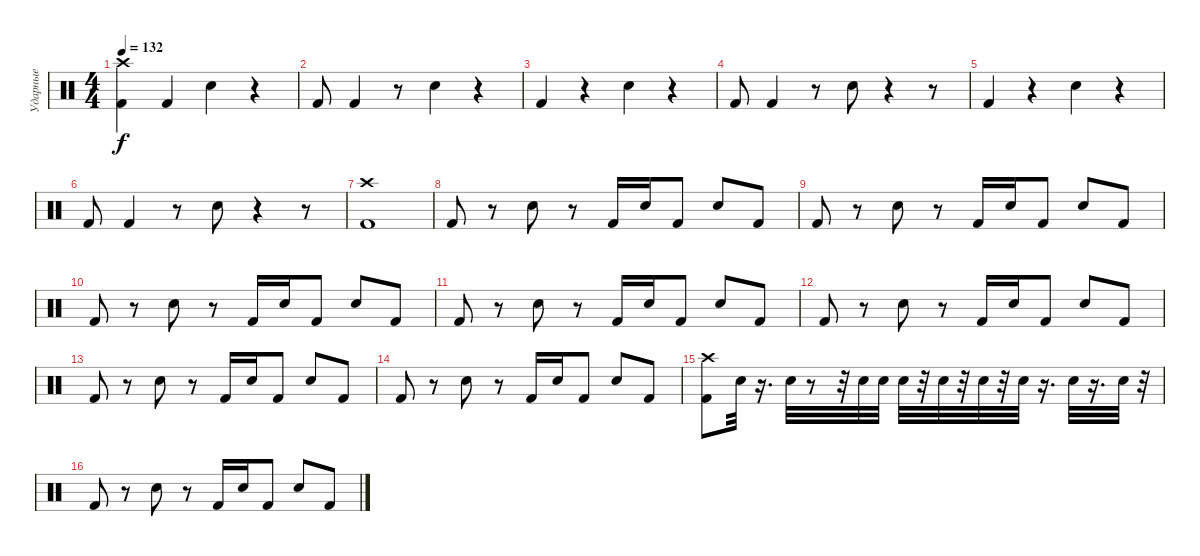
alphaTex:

\track ("Ударные" "Ударные") {instrument percussion}
\staff {score}
\articulation defaults
\ts (4 4)
\tempo 132
\clef neutral
\ks c
("Kick (hit) 2" "Crash high (hit)").4{dy f} "Kick (hit) 2".4 "Electric Snare (hit)".4 r.4 |
"Kick (hit) 2".8 "Kick (hit) 2".4 r.8 "Electric Snare (hit)".4 r.4 |
"Kick (hit) 2".4 r.4 "Electric Snare (hit)".4 r.4 |
"Kick (hit) 2".8 "Kick (hit) 2".4 r.8 "Electric Snare (hit)".8 r.4 r.8 |
"Kick (hit) 2".4 r.4 "Electric Snare (hit)".4 r.4 |
"Kick (hit) 2".8 "Kick (hit) 2".4 r.8 "Electric Snare (hit)".8 r.4 r.8 |
("Crash high (hit)" "Kick (hit) 2").1 |
"Kick (hit) 2".8 r.8 "Electric Snare (hit)".8 r.8 "Kick (hit) 2".16 "Electric Snare (hit)".16 "Kick (hit) 2".8 "Electric Snare (hit)".8 "Kick (hit) 2".8 |
"Kick (hit) 2".8 r.8 "Electric Snare (hit)".8 r.8 "Kick (hit) 2".16 "Electric Snare (hit)".16 "Kick (hit) 2".8 "Electric Snare (hit)".8 "Kick (hit) 2".8 |
"Kick (hit) 2".8 r.8 "Electric Snare (hit)".8 r.8 "Kick (hit) 2".16 "Electric Snare (hit)".16 "Kick (hit) 2".8 "Electric Snare (hit)".8 "Kick (hit) 2".8 |
"Kick (hit) 2".8 r.8 "Electric Snare (hit)".8 r.8 "Kick (hit) 2".16 "Electric Snare (hit)".16 "Kick (hit) 2".8 "Electric Snare (hit)".8 "Kick (hit) 2".8 |
"Kick (hit) 2".8 r.8 "Electric Snare (hit)".8 r.8 "Kick (hit) 2".16 "Electric Snare (hit)".16 "Kick (hit) 2".8 "Electric Snare (hit)".8 "Kick (hit) 2".8 |
"Kick (hit) 2".8 r.8 "Electric Snare (hit)".8 r.8 "Kick (hit) 2".16 "Electric Snare (hit)".16 "Kick (hit) 2".8 "Electric Snare (hit)".8 "Kick (hit) 2".8 |
"Kick (hit) 2".8 r.8 "Electric Snare (hit)".8 r.8 "Kick (hit) 2".16 "Electric Snare (hit)".16 "Kick (hit) 2".8 "Electric Snare (hit)".8 "Kick (hit) 2".8 |
("Crash high (hit)" "Kick (hit) 2").8 "Electric Snare (hit)".32 r.16{d} "Electric Snare (hit)".32 r.8 r.32 "Electric Snare (hit)".32 "Electric Snare (hit)".32 "Electric Snare (hit)".32 r.32 "Electric Snare (hit)".32 r.32 "Electric Snare (hit)".32 r.32 "Electric Snare (hit)".32 r.16{d} "Electric Snare (hit)".32 r.16{d} "Electric Snare (hit)".32 r.32 |
"Kick (hit) 2".8 r.8 "Electric Snare (hit)".8 r.8 "Kick (hit) 2".16 "Electric Snare (hit)".16 "Kick (hit) 2".8 "Electric Snare (hit)".8 "Kick (hit) 2".8
